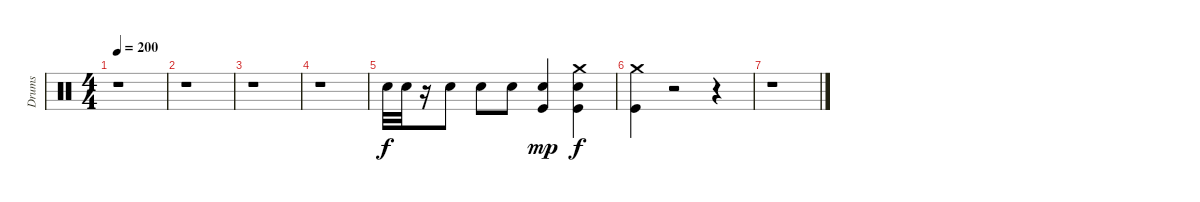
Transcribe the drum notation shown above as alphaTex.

\track ("Drums" "Drums") {instrument percussion}
\staff {score}
\articulation defaults
\ts (4 4)
\tempo 200
\clef neutral
\ks c
r.1{dy f} |
r.1 |
r.1 |
r.1 |
"Electric Snare (hit)".32{volume 11 balance 8} "Electric Snare (hit)".32 r.16 "Electric Snare (hit)".8 "Electric Snare (hit)".8 "Electric Snare (hit)".8 ("Kick (hit)" "Electric Snare (hit)").4{dy mp} ("Kick (hit)" "Crash medium (hit)" "Electric Snare (hit)").4{dy f} |
("Kick (hit)" "Crash medium (hit)").4 r.2 r.4 |
r.1
